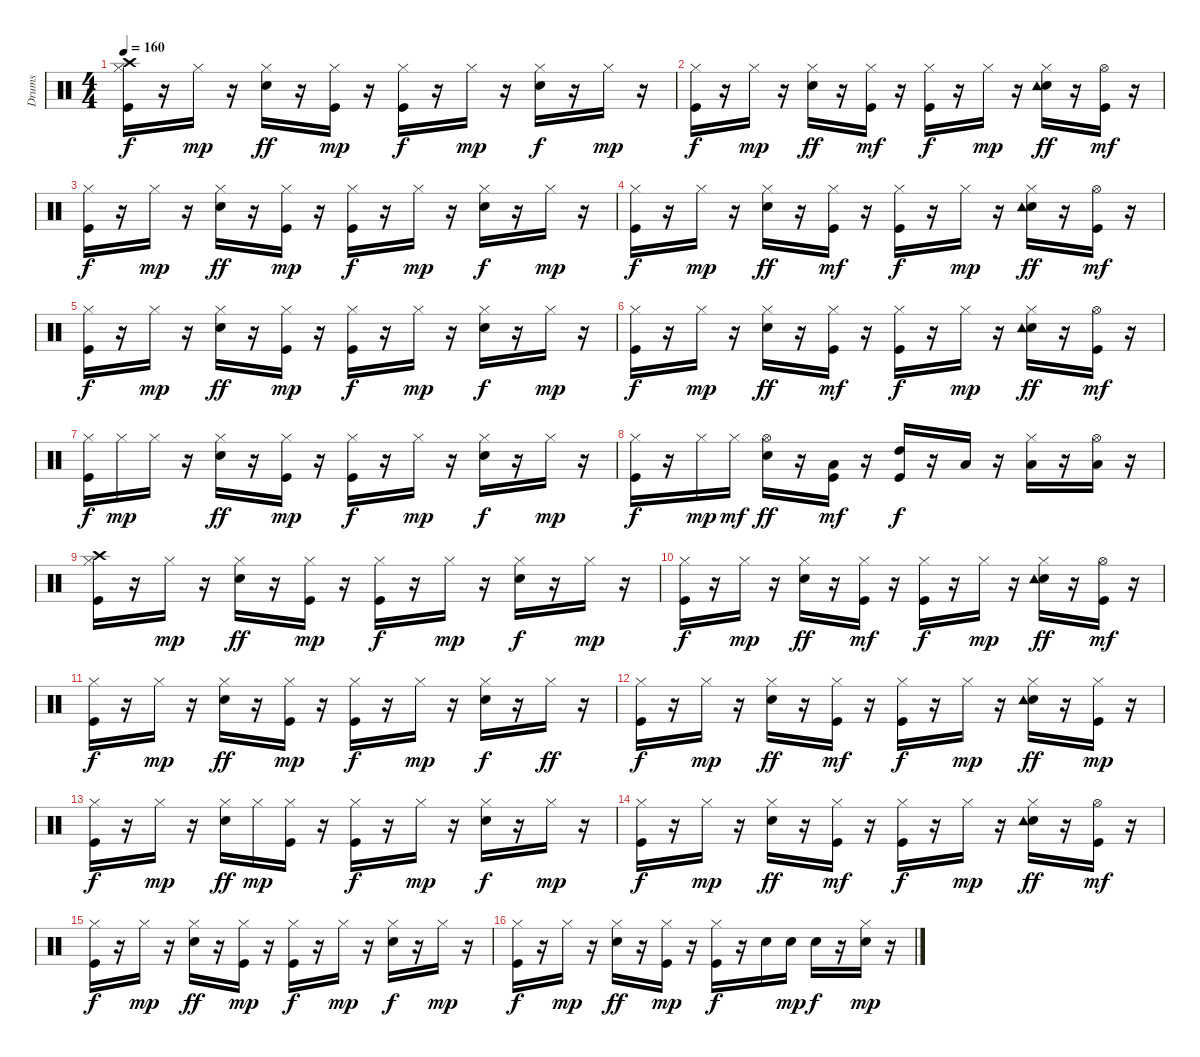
\track ("Drums   " "Drums   ") {instrument percussion}
\staff {score}
\articulation defaults
\ts (4 4)
\tempo 160
\clef neutral
\ks c
("Kick (hit)" "Hi-Hat (closed)" "Crash high (hit)").16{dy f} r.16 "Hi-Hat (closed)".16{dy mp} r.16 ("Snare (hit) 2" "Hi-Hat (closed)").16{dy ff} r.16 ("Kick (hit)" "Hi-Hat (closed)").16{dy mp} r.16 ("Kick (hit)" "Hi-Hat (closed)").16{dy f} r.16 "Hi-Hat (closed)".16{dy mp} r.16 ("Snare (hit) 2" "Hi-Hat (closed)").16{dy f} r.16 "Hi-Hat (closed)".16{dy mp} r.16 |
("Kick (hit)" "Hi-Hat (closed)").16{dy f} r.16 "Hi-Hat (closed)".16{dy mp} r.16 ("Snare (hit) 2" "Hi-Hat (closed)").16{dy ff} r.16 ("Kick (hit)" "Hi-Hat (closed)").16{dy mf} r.16 ("Kick (hit)" "Hi-Hat (closed)").16{dy f} r.16 "Hi-Hat (closed)".16{dy mp} r.16 ("Snare (hit) 2" "Hi-Hat (closed)" "Tambourine (hit)").16{dy ff} r.16 ("Kick (hit)" "Hi-Hat (open)").16{dy mf} r.16 |
("Kick (hit)" "Hi-Hat (closed)").16{dy f} r.16 "Hi-Hat (closed)".16{dy mp} r.16 ("Snare (hit) 2" "Hi-Hat (closed)").16{dy ff} r.16 ("Kick (hit)" "Hi-Hat (closed)").16{dy mp} r.16 ("Kick (hit)" "Hi-Hat (closed)").16{dy f} r.16 "Hi-Hat (closed)".16{dy mp} r.16 ("Snare (hit) 2" "Hi-Hat (closed)").16{dy f} r.16 "Hi-Hat (closed)".16{dy mp} r.16 |
("Kick (hit)" "Hi-Hat (closed)").16{dy f} r.16 "Hi-Hat (closed)".16{dy mp} r.16 ("Snare (hit) 2" "Hi-Hat (closed)").16{dy ff} r.16 ("Kick (hit)" "Hi-Hat (closed)").16{dy mf} r.16 ("Kick (hit)" "Hi-Hat (closed)").16{dy f} r.16 "Hi-Hat (closed)".16{dy mp} r.16 ("Snare (hit) 2" "Hi-Hat (closed)" "Tambourine (hit)").16{dy ff} r.16 ("Kick (hit)" "Hi-Hat (open)").16{dy mf} r.16 |
("Kick (hit)" "Hi-Hat (closed)").16{dy f} r.16 "Hi-Hat (closed)".16{dy mp} r.16 ("Snare (hit) 2" "Hi-Hat (closed)").16{dy ff} r.16 ("Kick (hit)" "Hi-Hat (closed)").16{dy mp} r.16 ("Kick (hit)" "Hi-Hat (closed)").16{dy f} r.16 "Hi-Hat (closed)".16{dy mp} r.16 ("Snare (hit) 2" "Hi-Hat (closed)").16{dy f} r.16 "Hi-Hat (closed)".16{dy mp} r.16 |
("Kick (hit)" "Hi-Hat (closed)").16{dy f} r.16 "Hi-Hat (closed)".16{dy mp} r.16 ("Snare (hit) 2" "Hi-Hat (closed)").16{dy ff} r.16 ("Kick (hit)" "Hi-Hat (closed)").16{dy mf} r.16 ("Kick (hit)" "Hi-Hat (closed)").16{dy f} r.16 "Hi-Hat (closed)".16{dy mp} r.16 ("Snare (hit) 2" "Hi-Hat (closed)" "Tambourine (hit)").16{dy ff} r.16 ("Kick (hit)" "Hi-Hat (open)").16{dy mf} r.16 |
("Kick (hit)" "Hi-Hat (closed)").16{dy f} "Hi-Hat (closed)".16{dy mp} "Hi-Hat (closed)".16 r.16 ("Snare (hit) 2" "Hi-Hat (closed)").16{dy ff} r.16 ("Kick (hit)" "Hi-Hat (closed)").16{dy mp} r.16 ("Kick (hit)" "Hi-Hat (closed)").16{dy f} r.16 "Hi-Hat (closed)".16{dy mp} r.16 ("Snare (hit) 2" "Hi-Hat (closed)").16{dy f} r.16 "Hi-Hat (closed)".16{dy mp} r.16 |
("Kick (hit)" "Hi-Hat (closed)").16{dy f} r.16 "Hi-Hat (closed)".16{dy mp} "Hi-Hat (closed)".16{dy mf} ("Snare (hit) 2" "Hi-Hat (open)").16{dy ff} r.16 ("Kick (hit)" "Low Tom (hit)").16{dy mf} r.16 ("Kick (hit)" "High Tom (hit)").16{dy f} r.16 "Low Tom (hit)".16 r.16 ("Hi-Hat (closed)" "Low Tom (hit)").16 r.16 ("Hi-Hat (open)" "Low Floor Tom (hit)").16 r.16 |
("Kick (hit)" "Hi-Hat (closed)" "Crash high (hit)").16 r.16 "Hi-Hat (closed)".16{dy mp} r.16 ("Snare (hit) 2" "Hi-Hat (closed)").16{dy ff} r.16 ("Kick (hit)" "Hi-Hat (closed)").16{dy mp} r.16 ("Kick (hit)" "Hi-Hat (closed)").16{dy f} r.16 "Hi-Hat (closed)".16{dy mp} r.16 ("Snare (hit) 2" "Hi-Hat (closed)").16{dy f} r.16 "Hi-Hat (closed)".16{dy mp} r.16 |
("Kick (hit)" "Hi-Hat (closed)").16{dy f} r.16 "Hi-Hat (closed)".16{dy mp} r.16 ("Snare (hit) 2" "Hi-Hat (closed)").16{dy ff} r.16 ("Kick (hit)" "Hi-Hat (closed)").16{dy mf} r.16 ("Kick (hit)" "Hi-Hat (closed)").16{dy f} r.16 "Hi-Hat (closed)".16{dy mp} r.16 ("Snare (hit) 2" "Hi-Hat (closed)" "Tambourine (hit)").16{dy ff} r.16 ("Kick (hit)" "Hi-Hat (open)").16{dy mf} r.16 |
("Kick (hit)" "Hi-Hat (closed)").16{dy f} r.16 "Hi-Hat (closed)".16{dy mp} r.16 ("Snare (hit) 2" "Hi-Hat (closed)").16{dy ff} r.16 ("Kick (hit)" "Hi-Hat (closed)").16{dy mp} r.16 ("Kick (hit)" "Hi-Hat (closed)").16{dy f} r.16 "Hi-Hat (closed)".16{dy mp} r.16 ("Snare (hit) 2" "Hi-Hat (closed)").16{dy f} r.16 "Hi-Hat (closed)".16{dy ff} r.16 |
("Kick (hit)" "Hi-Hat (closed)").16{dy f} r.16 "Hi-Hat (closed)".16{dy mp} r.16 ("Snare (hit) 2" "Hi-Hat (closed)").16{dy ff} r.16 ("Kick (hit)" "Hi-Hat (closed)").16{dy mf} r.16 ("Kick (hit)" "Hi-Hat (closed)").16{dy f} r.16 "Hi-Hat (closed)".16{dy mp} r.16 ("Snare (hit) 2" "Hi-Hat (closed)" "Tambourine (hit)").16{dy ff} r.16 ("Kick (hit)" "Hi-Hat (closed)").16{dy mp} r.16 |
("Kick (hit)" "Hi-Hat (closed)").16{dy f} r.16 "Hi-Hat (closed)".16{dy mp} r.16 ("Snare (hit) 2" "Hi-Hat (closed)").16{dy ff} "Hi-Hat (closed)".16{dy mp} ("Kick (hit)" "Hi-Hat (closed)").16 r.16 ("Kick (hit)" "Hi-Hat (closed)").16{dy f} r.16 "Hi-Hat (closed)".16{dy mp} r.16 ("Snare (hit) 2" "Hi-Hat (closed)").16{dy f} r.16 "Hi-Hat (closed)".16{dy mp} r.16 |
("Kick (hit)" "Hi-Hat (closed)").16{dy f} r.16 "Hi-Hat (closed)".16{dy mp} r.16 ("Snare (hit) 2" "Hi-Hat (closed)").16{dy ff} r.16 ("Kick (hit)" "Hi-Hat (closed)").16{dy mf} r.16 ("Kick (hit)" "Hi-Hat (closed)").16{dy f} r.16 "Hi-Hat (closed)".16{dy mp} r.16 ("Snare (hit) 2" "Hi-Hat (closed)" "Tambourine (hit)").16{dy ff} r.16 ("Kick (hit)" "Hi-Hat (open)").16{dy mf} r.16 |
("Kick (hit)" "Hi-Hat (closed)").16{dy f} r.16 "Hi-Hat (closed)".16{dy mp} r.16 ("Snare (hit) 2" "Hi-Hat (closed)").16{dy ff} r.16 ("Kick (hit)" "Hi-Hat (closed)").16{dy mp} r.16 ("Kick (hit)" "Hi-Hat (closed)").16{dy f} r.16 "Hi-Hat (closed)".16{dy mp} r.16 ("Snare (hit) 2" "Hi-Hat (closed)").16{dy f} r.16 "Hi-Hat (closed)".16{dy mp} r.16 |
("Kick (hit)" "Hi-Hat (closed)").16{dy f} r.16 "Hi-Hat (closed)".16{dy mp} r.16 ("Snare (hit) 2" "Hi-Hat (closed)").16{dy ff} r.16 ("Kick (hit)" "Hi-Hat (closed)").16{dy mp} r.16 ("Kick (hit)" "Hi-Hat (closed)").16{dy f} r.16 "Snare (hit) 2".16 "Snare (hit) 2".16{dy mp} "Snare (hit) 2".16{dy f} r.16 ("Snare (hit) 2" "Hi-Hat (closed)").16{dy mp} r.16
